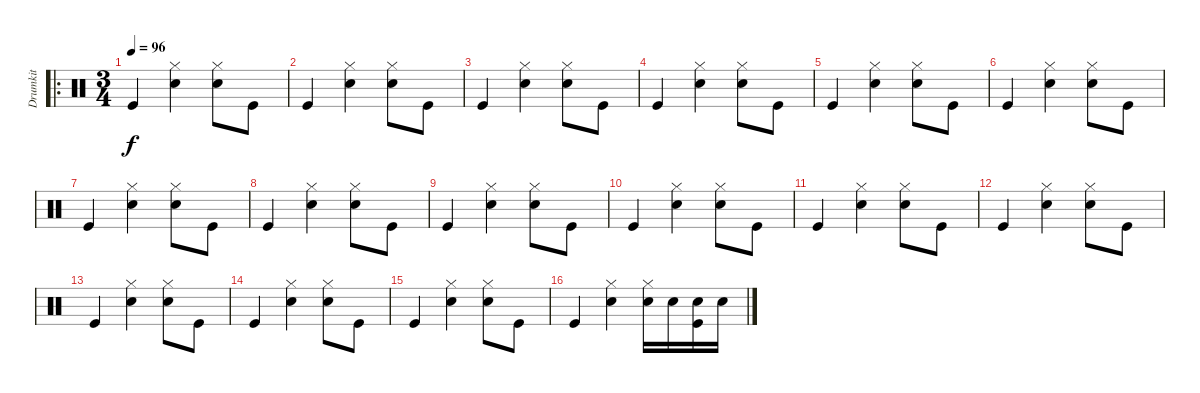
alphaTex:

\track ("Drumkit" "Drumkit") {instrument percussion}
\staff {score}
\articulation defaults
\ro
\ts (3 4)
\tempo 96
\clef neutral
\ks c "Kick (hit)".4{dy f}
("Hi-Hat (closed)" "Snare (hit) 2").4 ("Hi-Hat (closed)" "Snare (hit) 2").8 "Kick (hit)".8 |
"Kick (hit)".4 ("Hi-Hat (closed)" "Snare (hit) 2").4 ("Hi-Hat (closed)" "Snare (hit) 2").8 "Kick (hit)".8 |
"Kick (hit)".4 ("Hi-Hat (closed)" "Snare (hit) 2").4 ("Hi-Hat (closed)" "Snare (hit) 2").8 "Kick (hit)".8 |
"Kick (hit)".4 ("Hi-Hat (closed)" "Snare (hit) 2").4 ("Hi-Hat (closed)" "Snare (hit) 2").8 "Kick (hit)".8 |
"Kick (hit)".4 ("Hi-Hat (closed)" "Snare (hit) 2").4 ("Hi-Hat (closed)" "Snare (hit) 2").8 "Kick (hit)".8 |
"Kick (hit)".4 ("Hi-Hat (closed)" "Snare (hit) 2").4 ("Hi-Hat (closed)" "Snare (hit) 2").8 "Kick (hit)".8 |
"Kick (hit)".4 ("Hi-Hat (closed)" "Snare (hit) 2").4 ("Hi-Hat (closed)" "Snare (hit) 2").8 "Kick (hit)".8 |
"Kick (hit)".4 ("Hi-Hat (closed)" "Snare (hit) 2").4 ("Hi-Hat (closed)" "Snare (hit) 2").8 "Kick (hit)".8 |
"Kick (hit)".4 ("Hi-Hat (closed)" "Snare (hit) 2").4 ("Hi-Hat (closed)" "Snare (hit) 2").8 "Kick (hit)".8 |
"Kick (hit)".4 ("Hi-Hat (closed)" "Snare (hit) 2").4 ("Hi-Hat (closed)" "Snare (hit) 2").8 "Kick (hit)".8 |
"Kick (hit)".4 ("Hi-Hat (closed)" "Snare (hit) 2").4 ("Hi-Hat (closed)" "Snare (hit) 2").8 "Kick (hit)".8 |
"Kick (hit)".4 ("Hi-Hat (closed)" "Snare (hit) 2").4 ("Hi-Hat (closed)" "Snare (hit) 2").8 "Kick (hit)".8 |
"Kick (hit)".4 ("Hi-Hat (closed)" "Snare (hit) 2").4 ("Hi-Hat (closed)" "Snare (hit) 2").8 "Kick (hit)".8 |
"Kick (hit)".4 ("Hi-Hat (closed)" "Snare (hit) 2").4 ("Hi-Hat (closed)" "Snare (hit) 2").8 "Kick (hit)".8 |
"Kick (hit)".4 ("Hi-Hat (closed)" "Snare (hit) 2").4 ("Hi-Hat (closed)" "Snare (hit) 2").8 "Kick (hit)".8 |
"Kick (hit)".4 ("Hi-Hat (closed)" "Snare (hit) 2").4 ("Hi-Hat (closed)" "Snare (hit) 2").16 "Snare (hit) 2".16 ("Snare (hit) 2" "Kick (hit)").16 "Snare (hit) 2".16
